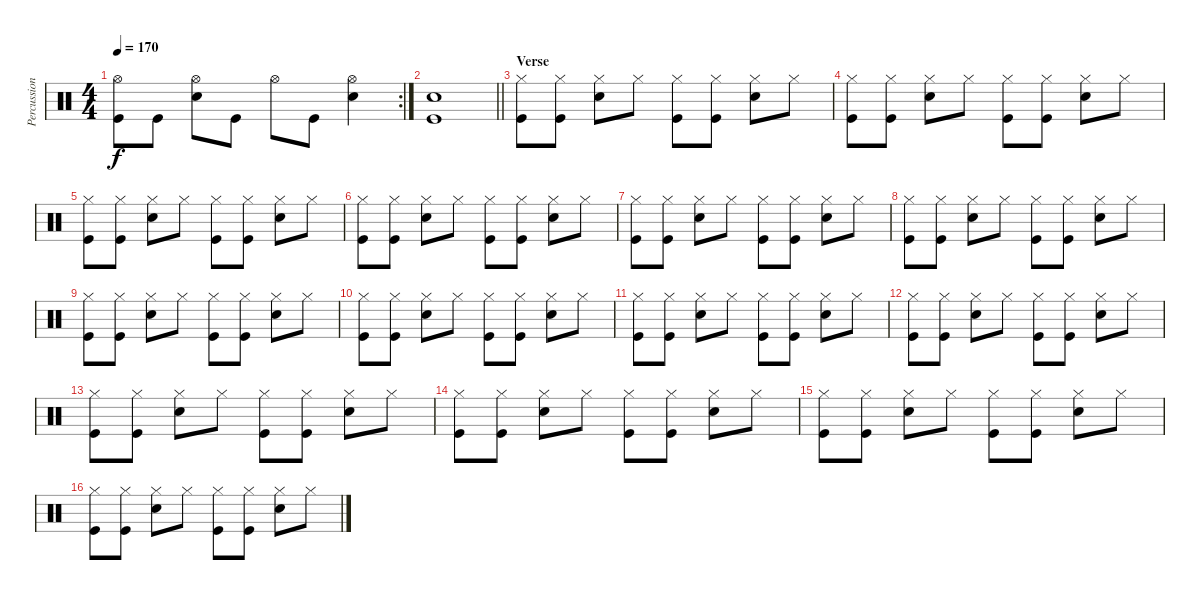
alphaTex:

\track ("Percussion" "Percussion") {instrument percussion}
\staff {score}
\articulation defaults
\rc 2
\ts (4 4)
\tempo 170
\clef neutral
\ks c
("Hi-Hat (open)" "Kick (hit)").8{dy f} "Kick (hit)".8 ("Hi-Hat (open)" "Snare (hit) 2").8 "Kick (hit)".8 "Hi-Hat (open)".8 "Kick (hit)".8 ("Hi-Hat (open)" "Snare (hit) 2").4 |
\barLineRight lightlight
("Snare (hit) 2" "Kick (hit)").1 |
\section ("" "Verse")
("Hi-Hat (closed)" "Kick (hit)").8 ("Hi-Hat (closed)" "Kick (hit)").8 ("Hi-Hat (closed)" "Snare (hit) 2").8 "Hi-Hat (closed)".8 ("Hi-Hat (closed)" "Kick (hit)").8 ("Hi-Hat (closed)" "Kick (hit)").8 ("Hi-Hat (closed)" "Snare (hit) 2").8 "Hi-Hat (closed)".8 |
("Hi-Hat (closed)" "Kick (hit)").8 ("Hi-Hat (closed)" "Kick (hit)").8 ("Hi-Hat (closed)" "Snare (hit) 2").8 "Hi-Hat (closed)".8 ("Hi-Hat (closed)" "Kick (hit)").8 ("Hi-Hat (closed)" "Kick (hit)").8 ("Hi-Hat (closed)" "Snare (hit) 2").8 "Hi-Hat (closed)".8 |
("Hi-Hat (closed)" "Kick (hit)").8 ("Hi-Hat (closed)" "Kick (hit)").8 ("Hi-Hat (closed)" "Snare (hit) 2").8 "Hi-Hat (closed)".8 ("Hi-Hat (closed)" "Kick (hit)").8 ("Hi-Hat (closed)" "Kick (hit)").8 ("Hi-Hat (closed)" "Snare (hit) 2").8 "Hi-Hat (closed)".8 |
("Hi-Hat (closed)" "Kick (hit)").8 ("Hi-Hat (closed)" "Kick (hit)").8 ("Hi-Hat (closed)" "Snare (hit) 2").8 "Hi-Hat (closed)".8 ("Hi-Hat (closed)" "Kick (hit)").8 ("Hi-Hat (closed)" "Kick (hit)").8 ("Hi-Hat (closed)" "Snare (hit) 2").8 "Hi-Hat (closed)".8 |
("Hi-Hat (closed)" "Kick (hit)").8 ("Hi-Hat (closed)" "Kick (hit)").8 ("Hi-Hat (closed)" "Snare (hit) 2").8 "Hi-Hat (closed)".8 ("Hi-Hat (closed)" "Kick (hit)").8 ("Hi-Hat (closed)" "Kick (hit)").8 ("Hi-Hat (closed)" "Snare (hit) 2").8 "Hi-Hat (closed)".8 |
("Hi-Hat (closed)" "Kick (hit)").8 ("Hi-Hat (closed)" "Kick (hit)").8 ("Hi-Hat (closed)" "Snare (hit) 2").8 "Hi-Hat (closed)".8 ("Hi-Hat (closed)" "Kick (hit)").8 ("Hi-Hat (closed)" "Kick (hit)").8 ("Hi-Hat (closed)" "Snare (hit) 2").8 "Hi-Hat (closed)".8 |
("Hi-Hat (closed)" "Kick (hit)").8 ("Hi-Hat (closed)" "Kick (hit)").8 ("Hi-Hat (closed)" "Snare (hit) 2").8 "Hi-Hat (closed)".8 ("Hi-Hat (closed)" "Kick (hit)").8 ("Hi-Hat (closed)" "Kick (hit)").8 ("Hi-Hat (closed)" "Snare (hit) 2").8 "Hi-Hat (closed)".8 |
("Hi-Hat (closed)" "Kick (hit)").8 ("Hi-Hat (closed)" "Kick (hit)").8 ("Hi-Hat (closed)" "Snare (hit) 2").8 "Hi-Hat (closed)".8 ("Hi-Hat (closed)" "Kick (hit)").8 ("Hi-Hat (closed)" "Kick (hit)").8 ("Hi-Hat (closed)" "Snare (hit) 2").8 "Hi-Hat (closed)".8 |
("Hi-Hat (closed)" "Kick (hit)").8 ("Hi-Hat (closed)" "Kick (hit)").8 ("Hi-Hat (closed)" "Snare (hit) 2").8 "Hi-Hat (closed)".8 ("Hi-Hat (closed)" "Kick (hit)").8 ("Hi-Hat (closed)" "Kick (hit)").8 ("Hi-Hat (closed)" "Snare (hit) 2").8 "Hi-Hat (closed)".8 |
("Hi-Hat (closed)" "Kick (hit)").8 ("Hi-Hat (closed)" "Kick (hit)").8 ("Hi-Hat (closed)" "Snare (hit) 2").8 "Hi-Hat (closed)".8 ("Hi-Hat (closed)" "Kick (hit)").8 ("Hi-Hat (closed)" "Kick (hit)").8 ("Hi-Hat (closed)" "Snare (hit) 2").8 "Hi-Hat (closed)".8 |
("Hi-Hat (closed)" "Kick (hit)").8 ("Hi-Hat (closed)" "Kick (hit)").8 ("Hi-Hat (closed)" "Snare (hit) 2").8 "Hi-Hat (closed)".8 ("Hi-Hat (closed)" "Kick (hit)").8 ("Hi-Hat (closed)" "Kick (hit)").8 ("Hi-Hat (closed)" "Snare (hit) 2").8 "Hi-Hat (closed)".8 |
("Hi-Hat (closed)" "Kick (hit)").8 ("Hi-Hat (closed)" "Kick (hit)").8 ("Hi-Hat (closed)" "Snare (hit) 2").8 "Hi-Hat (closed)".8 ("Hi-Hat (closed)" "Kick (hit)").8 ("Hi-Hat (closed)" "Kick (hit)").8 ("Hi-Hat (closed)" "Snare (hit) 2").8 "Hi-Hat (closed)".8 |
("Hi-Hat (closed)" "Kick (hit)").8 ("Hi-Hat (closed)" "Kick (hit)").8 ("Hi-Hat (closed)" "Snare (hit) 2").8 "Hi-Hat (closed)".8 ("Hi-Hat (closed)" "Kick (hit)").8 ("Hi-Hat (closed)" "Kick (hit)").8 ("Hi-Hat (closed)" "Snare (hit) 2").8 "Hi-Hat (closed)".8 |
("Hi-Hat (closed)" "Kick (hit)").8 ("Hi-Hat (closed)" "Kick (hit)").8 ("Hi-Hat (closed)" "Snare (hit) 2").8 "Hi-Hat (closed)".8 ("Hi-Hat (closed)" "Kick (hit)").8 ("Hi-Hat (closed)" "Kick (hit)").8 ("Hi-Hat (closed)" "Snare (hit) 2").8 "Hi-Hat (closed)".8
